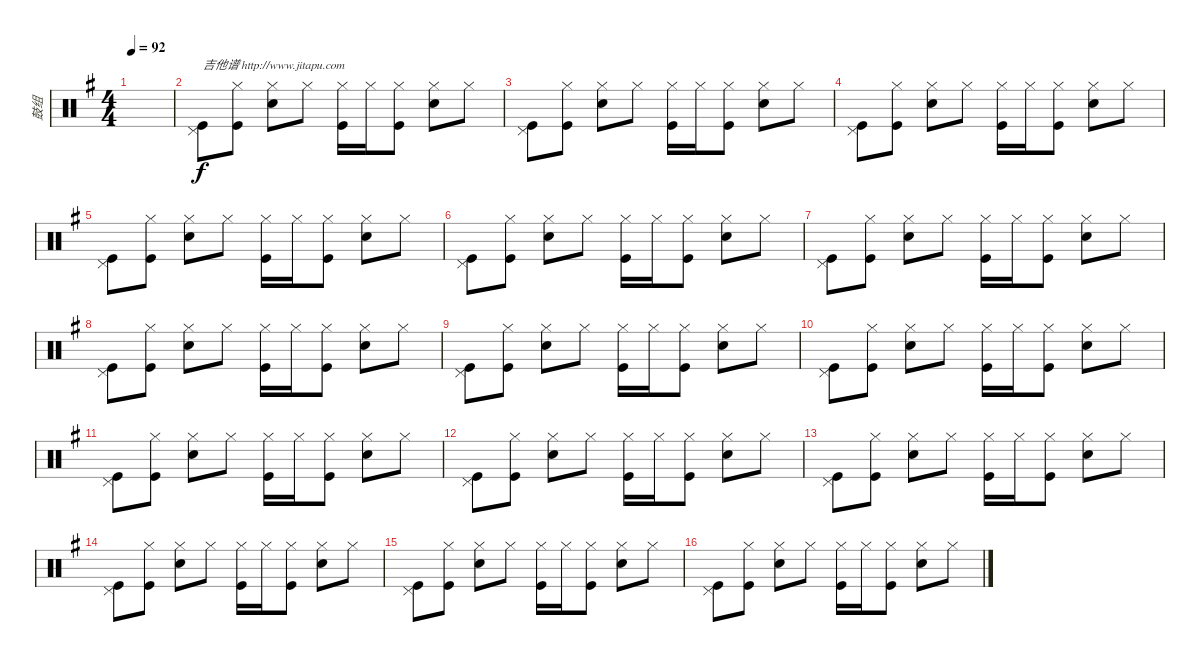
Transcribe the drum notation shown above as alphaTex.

\track ("鼓组" "鼓组") {instrument percussion}
\staff {score}
\articulation defaults
\ts (4 4)
\tempo 92
\clef neutral
\ks g
|
("Pedal Hi-Hat (hit)" "Kick (hit)").8{txt "吉他谱 http://www.jitapu.com"} ("Hi-Hat (closed)" "Kick (hit)").8 ("Hi-Hat (closed)" "Snare (hit) 2").8 "Hi-Hat (closed)".8 ("Hi-Hat (closed)" "Kick (hit)").16 "Hi-Hat (closed)".16 ("Hi-Hat (closed)" "Kick (hit)").8 ("Hi-Hat (closed)" "Snare (hit) 2").8 "Hi-Hat (closed)".8 |
("Pedal Hi-Hat (hit)" "Kick (hit)").8 ("Hi-Hat (closed)" "Kick (hit)").8 ("Hi-Hat (closed)" "Snare (hit) 2").8 "Hi-Hat (closed)".8 ("Hi-Hat (closed)" "Kick (hit)").16 "Hi-Hat (closed)".16 ("Hi-Hat (closed)" "Kick (hit)").8 ("Hi-Hat (closed)" "Snare (hit) 2").8 "Hi-Hat (closed)".8 |
("Pedal Hi-Hat (hit)" "Kick (hit)").8 ("Hi-Hat (closed)" "Kick (hit)").8 ("Hi-Hat (closed)" "Snare (hit) 2").8 "Hi-Hat (closed)".8 ("Hi-Hat (closed)" "Kick (hit)").16 "Hi-Hat (closed)".16 ("Hi-Hat (closed)" "Kick (hit)").8 ("Hi-Hat (closed)" "Snare (hit) 2").8 "Hi-Hat (closed)".8 |
("Pedal Hi-Hat (hit)" "Kick (hit)").8 ("Hi-Hat (closed)" "Kick (hit)").8 ("Hi-Hat (closed)" "Snare (hit) 2").8 "Hi-Hat (closed)".8 ("Hi-Hat (closed)" "Kick (hit)").16 "Hi-Hat (closed)".16 ("Hi-Hat (closed)" "Kick (hit)").8 ("Hi-Hat (closed)" "Snare (hit) 2").8 "Hi-Hat (closed)".8 |
("Pedal Hi-Hat (hit)" "Kick (hit)").8 ("Hi-Hat (closed)" "Kick (hit)").8 ("Hi-Hat (closed)" "Snare (hit) 2").8 "Hi-Hat (closed)".8 ("Hi-Hat (closed)" "Kick (hit)").16 "Hi-Hat (closed)".16 ("Hi-Hat (closed)" "Kick (hit)").8 ("Hi-Hat (closed)" "Snare (hit) 2").8 "Hi-Hat (closed)".8 |
("Pedal Hi-Hat (hit)" "Kick (hit)").8 ("Hi-Hat (closed)" "Kick (hit)").8 ("Hi-Hat (closed)" "Snare (hit) 2").8 "Hi-Hat (closed)".8 ("Hi-Hat (closed)" "Kick (hit)").16 "Hi-Hat (closed)".16 ("Hi-Hat (closed)" "Kick (hit)").8 ("Hi-Hat (closed)" "Snare (hit) 2").8 "Hi-Hat (closed)".8 |
("Pedal Hi-Hat (hit)" "Kick (hit)").8 ("Hi-Hat (closed)" "Kick (hit)").8 ("Hi-Hat (closed)" "Snare (hit) 2").8 "Hi-Hat (closed)".8 ("Hi-Hat (closed)" "Kick (hit)").16 "Hi-Hat (closed)".16 ("Hi-Hat (closed)" "Kick (hit)").8 ("Hi-Hat (closed)" "Snare (hit) 2").8 "Hi-Hat (closed)".8 |
("Pedal Hi-Hat (hit)" "Kick (hit)").8 ("Hi-Hat (closed)" "Kick (hit)").8 ("Hi-Hat (closed)" "Snare (hit) 2").8 "Hi-Hat (closed)".8 ("Hi-Hat (closed)" "Kick (hit)").16 "Hi-Hat (closed)".16 ("Hi-Hat (closed)" "Kick (hit)").8 ("Hi-Hat (closed)" "Snare (hit) 2").8 "Hi-Hat (closed)".8 |
("Pedal Hi-Hat (hit)" "Kick (hit)").8 ("Hi-Hat (closed)" "Kick (hit)").8 ("Hi-Hat (closed)" "Snare (hit) 2").8 "Hi-Hat (closed)".8 ("Hi-Hat (closed)" "Kick (hit)").16 "Hi-Hat (closed)".16 ("Hi-Hat (closed)" "Kick (hit)").8 ("Hi-Hat (closed)" "Snare (hit) 2").8 "Hi-Hat (closed)".8 |
("Pedal Hi-Hat (hit)" "Kick (hit)").8 ("Hi-Hat (closed)" "Kick (hit)").8 ("Hi-Hat (closed)" "Snare (hit) 2").8 "Hi-Hat (closed)".8 ("Hi-Hat (closed)" "Kick (hit)").16 "Hi-Hat (closed)".16 ("Hi-Hat (closed)" "Kick (hit)").8 ("Hi-Hat (closed)" "Snare (hit) 2").8 "Hi-Hat (closed)".8 |
("Pedal Hi-Hat (hit)" "Kick (hit)").8 ("Hi-Hat (closed)" "Kick (hit)").8 ("Hi-Hat (closed)" "Snare (hit) 2").8 "Hi-Hat (closed)".8 ("Hi-Hat (closed)" "Kick (hit)").16 "Hi-Hat (closed)".16 ("Hi-Hat (closed)" "Kick (hit)").8 ("Hi-Hat (closed)" "Snare (hit) 2").8 "Hi-Hat (closed)".8 |
("Pedal Hi-Hat (hit)" "Kick (hit)").8 ("Hi-Hat (closed)" "Kick (hit)").8 ("Hi-Hat (closed)" "Snare (hit) 2").8 "Hi-Hat (closed)".8 ("Hi-Hat (closed)" "Kick (hit)").16 "Hi-Hat (closed)".16 ("Hi-Hat (closed)" "Kick (hit)").8 ("Hi-Hat (closed)" "Snare (hit) 2").8 "Hi-Hat (closed)".8 |
("Pedal Hi-Hat (hit)" "Kick (hit)").8 ("Hi-Hat (closed)" "Kick (hit)").8 ("Hi-Hat (closed)" "Snare (hit) 2").8 "Hi-Hat (closed)".8 ("Hi-Hat (closed)" "Kick (hit)").16 "Hi-Hat (closed)".16 ("Hi-Hat (closed)" "Kick (hit)").8 ("Hi-Hat (closed)" "Snare (hit) 2").8 "Hi-Hat (closed)".8 |
("Pedal Hi-Hat (hit)" "Kick (hit)").8 ("Hi-Hat (closed)" "Kick (hit)").8 ("Hi-Hat (closed)" "Snare (hit) 2").8 "Hi-Hat (closed)".8 ("Hi-Hat (closed)" "Kick (hit)").16 "Hi-Hat (closed)".16 ("Hi-Hat (closed)" "Kick (hit)").8 ("Hi-Hat (closed)" "Snare (hit) 2").8 "Hi-Hat (closed)".8 |
("Pedal Hi-Hat (hit)" "Kick (hit)").8 ("Hi-Hat (closed)" "Kick (hit)").8 ("Hi-Hat (closed)" "Snare (hit) 2").8 "Hi-Hat (closed)".8 ("Hi-Hat (closed)" "Kick (hit)").16 "Hi-Hat (closed)".16 ("Hi-Hat (closed)" "Kick (hit)").8 ("Hi-Hat (closed)" "Snare (hit) 2").8 "Hi-Hat (closed)".8
